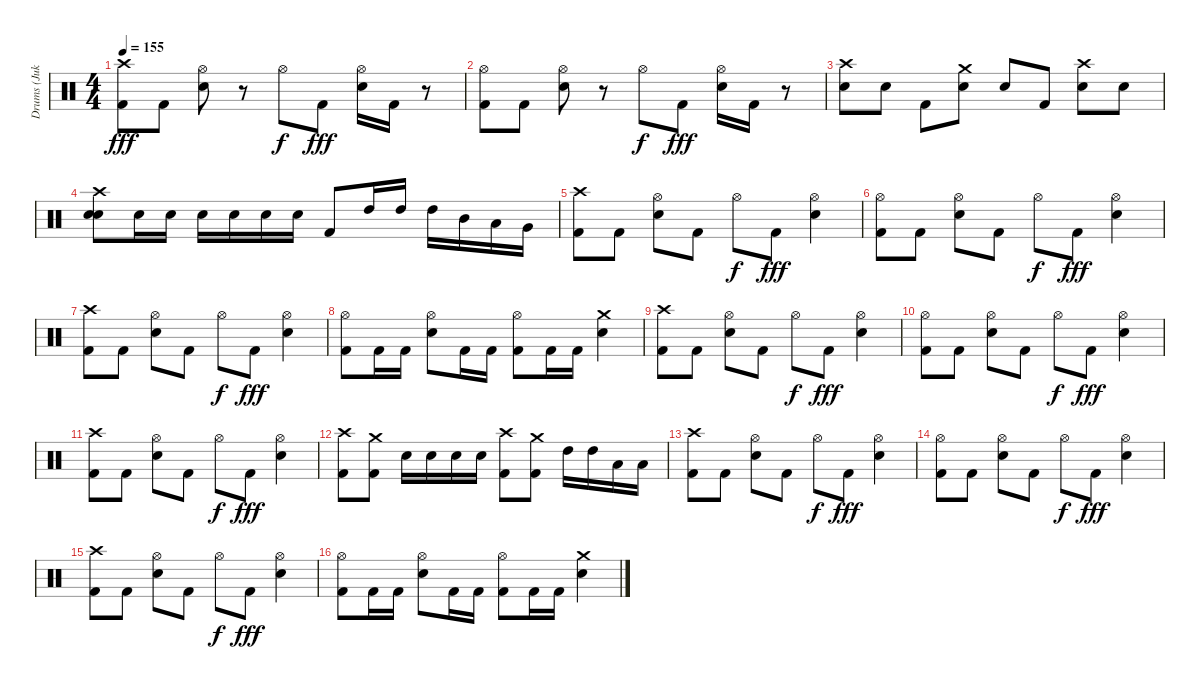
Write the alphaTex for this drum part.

\track ("Drums (Jukka)" "Drums (Juk") {instrument percussion}
\staff {score}
\articulation defaults
\ts (4 4)
\tempo 155
\clef neutral
\ks c
("Kick (hit) 2" "Crash high (hit)").8{dy fff} "Kick (hit) 2".8 ("Snare (hit) 2" "Hi-Hat (open)").8 r.8 "Hi-Hat (open)".8{dy f} "Kick (hit) 2".8{dy fff} ("Snare (hit) 2" "Hi-Hat (open)").16 "Kick (hit) 2".16 r.8 |
("Kick (hit) 2" "Hi-Hat (open)").8 "Kick (hit) 2".8 ("Snare (hit) 2" "Hi-Hat (open)").8 r.8 "Hi-Hat (open)".8{dy f} "Kick (hit) 2".8{dy fff} ("Snare (hit) 2" "Hi-Hat (open)").16 "Kick (hit) 2".16 r.8 |
("Snare (hit) 2" "Crash high (hit)").8 "Snare (hit) 2".8 "Kick (hit) 2".8 ("Snare (hit) 2" "Crash medium (hit)").8 "Snare (hit) 2".8 "Kick (hit) 2".8 ("Snare (hit) 2" "Crash high (hit)").8 "Snare (hit) 2".8 |
("Snare (hit) 2" "Snare (hit) 2" "Crash high (hit)").8 "Snare (hit) 2".16 "Snare (hit) 2".16 "Snare (hit) 2".16 "Snare (hit) 2".16 "Snare (hit) 2".16 "Snare (hit) 2".16 "Kick (hit) 2".8 "High Tom (hit)".16 "High Tom (hit)".16 "High Tom (hit)".16 "Mid Tom (hit)".16 "Low Tom (hit)".16 "Very Low Tom (hit)".16 |
("Kick (hit) 2" "Crash high (hit)").8 "Kick (hit) 2".8 ("Snare (hit) 2" "Hi-Hat (open)").8 "Kick (hit) 2".8 "Hi-Hat (open)".8{dy f} "Kick (hit) 2".8{dy fff} ("Snare (hit) 2" "Hi-Hat (open)").4 |
("Kick (hit) 2" "Hi-Hat (open)").8 "Kick (hit) 2".8 ("Snare (hit) 2" "Hi-Hat (open)").8 "Kick (hit) 2".8 "Hi-Hat (open)".8{dy f} "Kick (hit) 2".8{dy fff} ("Snare (hit) 2" "Hi-Hat (open)").4 |
("Kick (hit) 2" "Crash high (hit)").8 "Kick (hit) 2".8 ("Snare (hit) 2" "Hi-Hat (open)").8 "Kick (hit) 2".8 "Hi-Hat (open)".8{dy f} "Kick (hit) 2".8{dy fff} ("Snare (hit) 2" "Hi-Hat (open)").4 |
("Kick (hit) 2" "Hi-Hat (open)").8 "Kick (hit) 2".16 "Kick (hit) 2".16 ("Snare (hit) 2" "Hi-Hat (open)").8 "Kick (hit) 2".16 "Kick (hit) 2".16 ("Kick (hit) 2" "Hi-Hat (open)").8 "Kick (hit) 2".16 "Kick (hit) 2".16 ("Snare (hit) 2" "Crash medium (hit)").4 |
("Kick (hit) 2" "Crash high (hit)").8 "Kick (hit) 2".8 ("Snare (hit) 2" "Hi-Hat (open)").8 "Kick (hit) 2".8 "Hi-Hat (open)".8{dy f} "Kick (hit) 2".8{dy fff} ("Snare (hit) 2" "Hi-Hat (open)").4 |
("Kick (hit) 2" "Hi-Hat (open)").8 "Kick (hit) 2".8 ("Snare (hit) 2" "Hi-Hat (open)").8 "Kick (hit) 2".8 "Hi-Hat (open)".8{dy f} "Kick (hit) 2".8{dy fff} ("Snare (hit) 2" "Hi-Hat (open)").4 |
("Kick (hit) 2" "Crash high (hit)").8 "Kick (hit) 2".8 ("Snare (hit) 2" "Hi-Hat (open)").8 "Kick (hit) 2".8 "Hi-Hat (open)".8{dy f} "Kick (hit) 2".8{dy fff} ("Snare (hit) 2" "Hi-Hat (open)").4 |
("Kick (hit) 2" "Crash high (hit)").8 ("Kick (hit) 2" "Crash medium (hit)").8 "Snare (hit) 2".16 "Snare (hit) 2".16 "Snare (hit) 2".16 "Snare (hit) 2".16 ("Kick (hit) 2" "Crash high (hit)").8 ("Kick (hit) 2" "Crash medium (hit)").8 "High Tom (hit)".16 "High Tom (hit)".16 "Low Tom (hit)".16 "Low Floor Tom (hit)".16 |
("Kick (hit) 2" "Crash high (hit)").8 "Kick (hit) 2".8 ("Snare (hit) 2" "Hi-Hat (open)").8 "Kick (hit) 2".8 "Hi-Hat (open)".8{dy f} "Kick (hit) 2".8{dy fff} ("Snare (hit) 2" "Hi-Hat (open)").4 |
("Kick (hit) 2" "Hi-Hat (open)").8 "Kick (hit) 2".8 ("Snare (hit) 2" "Hi-Hat (open)").8 "Kick (hit) 2".8 "Hi-Hat (open)".8{dy f} "Kick (hit) 2".8{dy fff} ("Snare (hit) 2" "Hi-Hat (open)").4 |
("Kick (hit) 2" "Crash high (hit)").8 "Kick (hit) 2".8 ("Snare (hit) 2" "Hi-Hat (open)").8 "Kick (hit) 2".8 "Hi-Hat (open)".8{dy f} "Kick (hit) 2".8{dy fff} ("Snare (hit) 2" "Hi-Hat (open)").4 |
("Kick (hit) 2" "Hi-Hat (open)").8 "Kick (hit) 2".16 "Kick (hit) 2".16 ("Snare (hit) 2" "Hi-Hat (open)").8 "Kick (hit) 2".16 "Kick (hit) 2".16 ("Kick (hit) 2" "Hi-Hat (open)").8 "Kick (hit) 2".16 "Kick (hit) 2".16 ("Snare (hit) 2" "Crash medium (hit)").4
